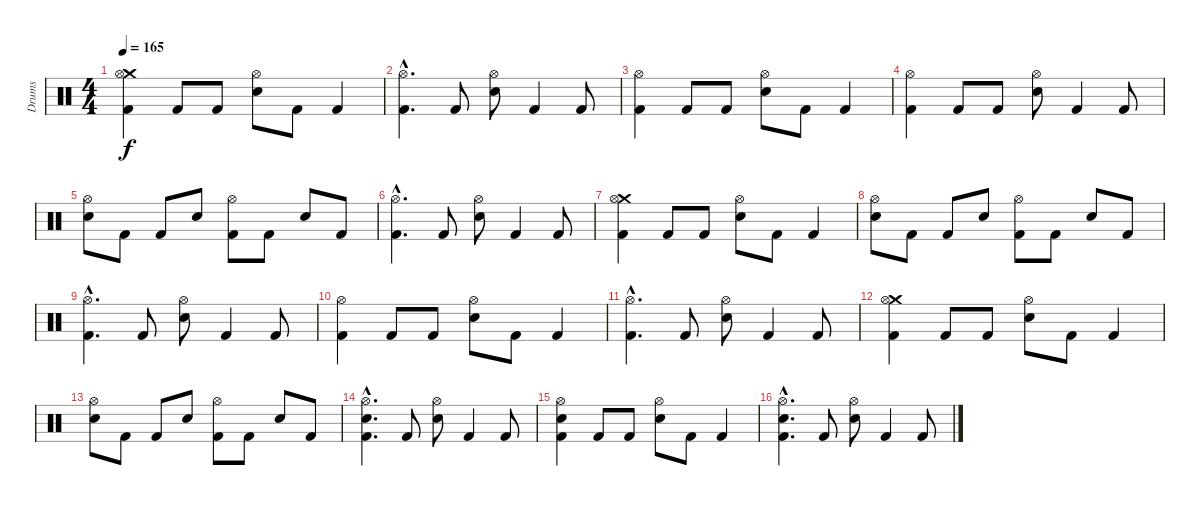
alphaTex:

\track ("Drums" "Drums") {instrument percussion}
\staff {score}
\articulation defaults
\ts (4 4)
\tempo 165
\clef neutral
\ks c
("Crash medium (hit)" "Hi-Hat (open)" "Kick (hit) 2").4{dy f} "Kick (hit) 2".8 "Kick (hit) 2".8 ("Electric Snare (hit)" "Hi-Hat (open)").8 "Kick (hit) 2".8 "Kick (hit) 2".4 |
("Hi-Hat (open)"{hac} "Kick (hit) 2"{hac}).4{d} "Kick (hit) 2".8 ("Electric Snare (hit)" "Hi-Hat (open)").8 "Kick (hit) 2".4 "Kick (hit) 2".8 |
("Hi-Hat (open)" "Kick (hit) 2").4 "Kick (hit) 2".8 "Kick (hit) 2".8 ("Electric Snare (hit)" "Hi-Hat (open)").8 "Kick (hit) 2".8 "Kick (hit) 2".4 |
("Hi-Hat (open)" "Kick (hit) 2").4 "Kick (hit) 2".8 "Kick (hit) 2".8 ("Electric Snare (hit)" "Hi-Hat (open)").8 "Kick (hit) 2".4 "Kick (hit) 2".8 |
("Electric Snare (hit)" "Hi-Hat (open)").8 "Kick (hit) 2".8 "Kick (hit) 2".8 "Electric Snare (hit)".8 ("Hi-Hat (open)" "Kick (hit) 2").8 "Kick (hit) 2".8 "Electric Snare (hit)".8 "Kick (hit) 2".8 |
("Hi-Hat (open)"{hac} "Kick (hit) 2"{hac}).4{d} "Kick (hit) 2".8 ("Electric Snare (hit)" "Hi-Hat (open)").8 "Kick (hit) 2".4 "Kick (hit) 2".8 |
("Crash medium (hit)" "Hi-Hat (open)" "Kick (hit) 2").4 "Kick (hit) 2".8 "Kick (hit) 2".8 ("Electric Snare (hit)" "Hi-Hat (open)").8 "Kick (hit) 2".8 "Kick (hit) 2".4 |
("Electric Snare (hit)" "Hi-Hat (open)").8 "Kick (hit) 2".8 "Kick (hit) 2".8 "Electric Snare (hit)".8 ("Hi-Hat (open)" "Kick (hit) 2").8 "Kick (hit) 2".8 "Electric Snare (hit)".8 "Kick (hit) 2".8 |
("Hi-Hat (open)"{hac} "Kick (hit) 2"{hac}).4{d} "Kick (hit) 2".8 ("Electric Snare (hit)" "Hi-Hat (open)").8 "Kick (hit) 2".4 "Kick (hit) 2".8 |
("Hi-Hat (open)" "Kick (hit) 2").4 "Kick (hit) 2".8 "Kick (hit) 2".8 ("Electric Snare (hit)" "Hi-Hat (open)").8 "Kick (hit) 2".8 "Kick (hit) 2".4 |
("Hi-Hat (open)"{hac} "Kick (hit) 2"{hac}).4{d} "Kick (hit) 2".8 ("Electric Snare (hit)" "Hi-Hat (open)").8 "Kick (hit) 2".4 "Kick (hit) 2".8 |
("Crash medium (hit)" "Hi-Hat (open)" "Kick (hit) 2").4 "Kick (hit) 2".8 "Kick (hit) 2".8 ("Electric Snare (hit)" "Hi-Hat (open)").8 "Kick (hit) 2".8 "Kick (hit) 2".4 |
("Electric Snare (hit)" "Hi-Hat (open)").8 "Kick (hit) 2".8 "Kick (hit) 2".8 "Electric Snare (hit)".8 ("Hi-Hat (open)" "Kick (hit) 2").8 "Kick (hit) 2".8 "Electric Snare (hit)".8 "Kick (hit) 2".8 |
("Electric Snare (hit)"{hac} "Hi-Hat (open)"{hac} "Kick (hit) 2"{hac}).4{d} "Kick (hit) 2".8 ("Electric Snare (hit)" "Hi-Hat (open)").8 "Kick (hit) 2".4 "Kick (hit) 2".8 |
("Electric Snare (hit)" "Hi-Hat (open)" "Kick (hit) 2").4 "Kick (hit) 2".8 "Kick (hit) 2".8 ("Electric Snare (hit)" "Hi-Hat (open)").8 "Kick (hit) 2".8 "Kick (hit) 2".4 |
("Electric Snare (hit)"{hac} "Hi-Hat (open)"{hac} "Kick (hit) 2"{hac}).4{d} "Kick (hit) 2".8 ("Electric Snare (hit)" "Hi-Hat (open)").8 "Kick (hit) 2".4 "Kick (hit) 2".8
